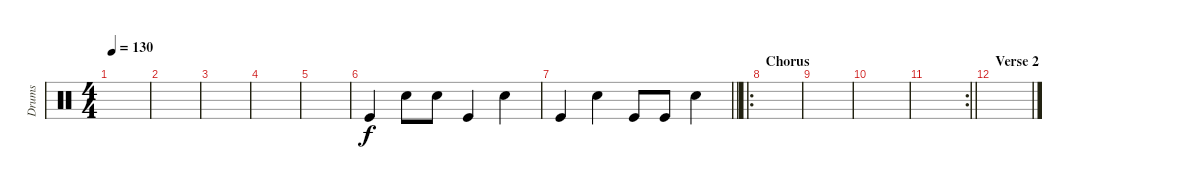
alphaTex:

\track ("Drums" "Drums") {instrument percussion}
\staff {score}
\articulation defaults
\ts (4 4)
\tempo 130
\clef neutral
\ks c
|
|
|
|
|
"Kick (hit)".4 "Snare (hit) 2".8 "Snare (hit) 2".8 "Kick (hit)".4 "Snare (hit) 2".4 |
\barLineRight lightlight "Kick (hit)".4 "Snare (hit) 2".4 "Kick (hit)".8 "Kick (hit)".8 "Snare (hit) 2".4
|
\ro
\section ("" "Chorus")
|
|
|
\rc 2
\barLineRight lightlight
|
\section ("" "Verse 2")
